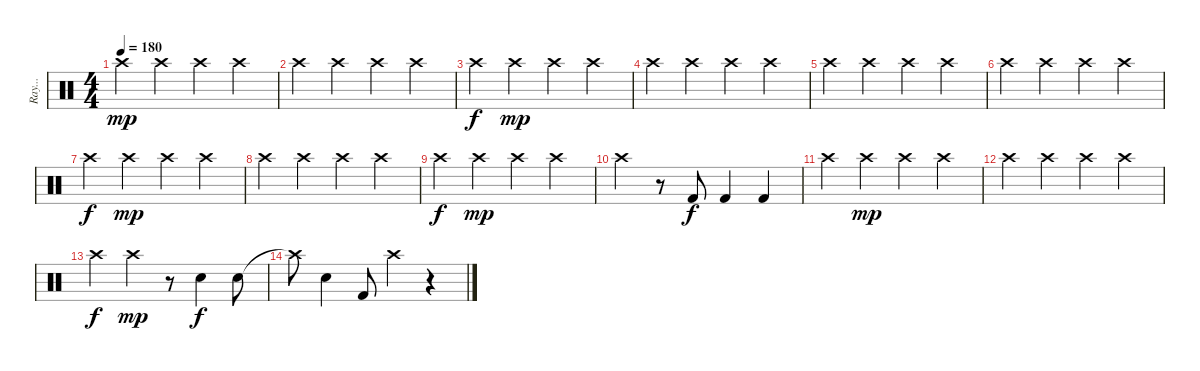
\track ("Ray..." "Ray...") {instrument percussion}
\staff {score}
\articulation defaults
\ts (4 4)
\tempo 180
\clef neutral
\ks c "Crash high (hit)".4{dy mp} "Crash high (hit)".4 "Crash high (hit)".4 "Crash high (hit)".4
|
"Crash high (hit)".4 "Crash high (hit)".4 "Crash high (hit)".4 "Crash high (hit)".4 |
"Crash high (hit)".4{dy f} "Crash high (hit)".4{dy mp} "Crash high (hit)".4 "Crash high (hit)".4 |
"Crash high (hit)".4 "Crash high (hit)".4 "Crash high (hit)".4 "Crash high (hit)".4 |
"Crash high (hit)".4 "Crash high (hit)".4 "Crash high (hit)".4 "Crash high (hit)".4 |
"Crash high (hit)".4 "Crash high (hit)".4 "Crash high (hit)".4 "Crash high (hit)".4 |
"Crash high (hit)".4{dy f} "Crash high (hit)".4{dy mp} "Crash high (hit)".4 "Crash high (hit)".4 |
"Crash high (hit)".4 "Crash high (hit)".4 "Crash high (hit)".4 "Crash high (hit)".4 |
"Crash high (hit)".4{dy f} "Crash high (hit)".4{dy mp} "Crash high (hit)".4 "Crash high (hit)".4 |
"Crash high (hit)".4 r.8 "Kick (hit) 2".8{dy f} "Kick (hit) 2".4 "Kick (hit) 2".4 |
"Crash high (hit)".4 "Crash high (hit)".4{dy mp} "Crash high (hit)".4 "Crash high (hit)".4 |
"Crash high (hit)".4 "Crash high (hit)".4 "Crash high (hit)".4 "Crash high (hit)".4 |
"Crash high (hit)".4{dy f} "Crash high (hit)".4{dy mp} r.8 "Snare (hit) 2".4{dy f} "Snare (hit) 2".8 |
"Crash high (hit)"{t}.8 "Snare (hit) 2".4 "Kick (hit) 2".8 "Crash high (hit)".4 r.4
